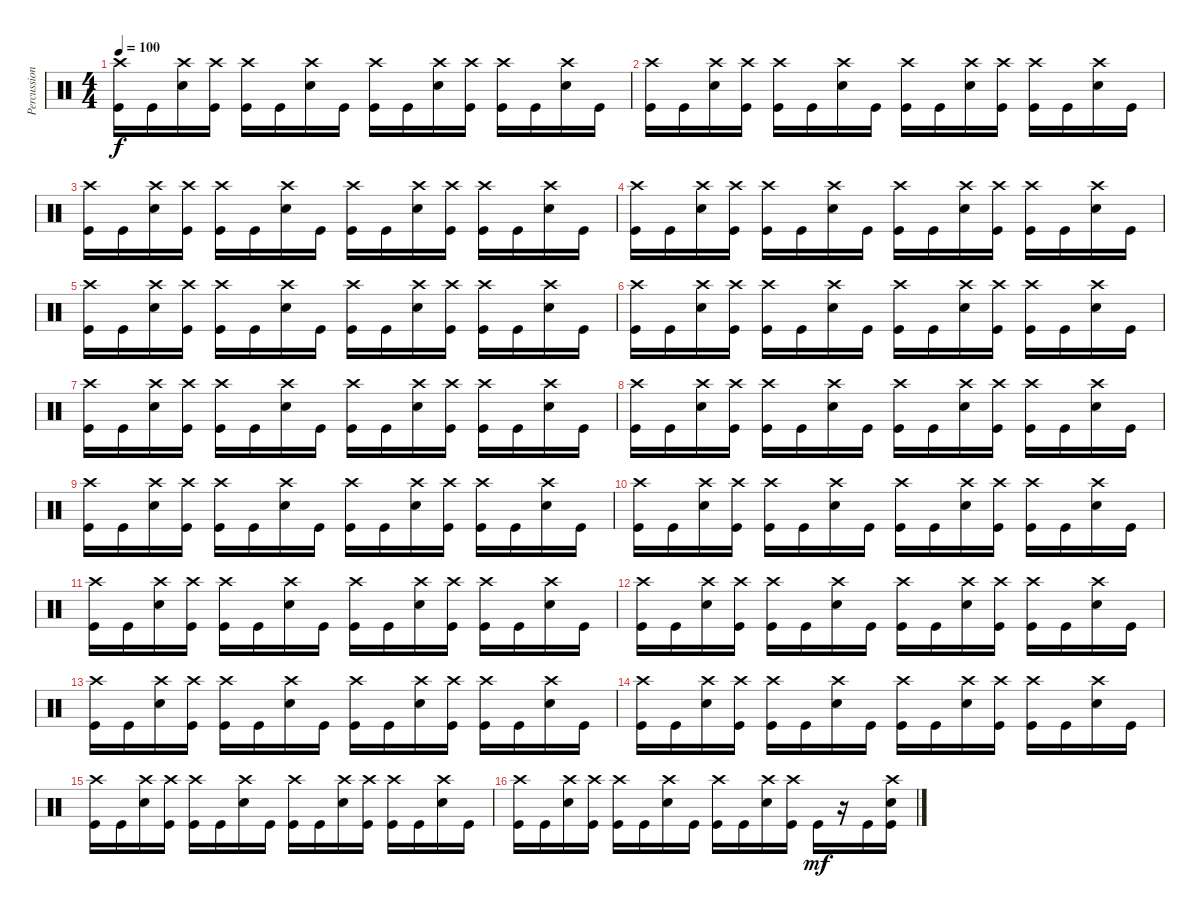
\track ("Percussion" "Percussion") {instrument percussion}
\staff {score}
\articulation defaults
\ts (4 4)
\tempo 100
\clef neutral
\ks c
("Crash high (hit)" "Kick (hit)").16{dy f} "Kick (hit)".16 ("Crash high (hit)" "Snare (hit) 2").16 ("Crash high (hit)" "Kick (hit)").16 ("Crash high (hit)" "Kick (hit)").16 "Kick (hit)".16 ("Crash high (hit)" "Snare (hit) 2").16 "Kick (hit)".16 ("Crash high (hit)" "Kick (hit)").16 "Kick (hit)".16 ("Crash high (hit)" "Snare (hit) 2").16 ("Crash high (hit)" "Kick (hit)").16 ("Crash high (hit)" "Kick (hit)").16 "Kick (hit)".16 ("Crash high (hit)" "Snare (hit) 2").16 "Kick (hit)".16 |
("Crash high (hit)" "Kick (hit)").16 "Kick (hit)".16 ("Crash high (hit)" "Snare (hit) 2").16 ("Crash high (hit)" "Kick (hit)").16 ("Crash high (hit)" "Kick (hit)").16 "Kick (hit)".16 ("Crash high (hit)" "Snare (hit) 2").16 "Kick (hit)".16 ("Crash high (hit)" "Kick (hit)").16 "Kick (hit)".16 ("Crash high (hit)" "Snare (hit) 2").16 ("Crash high (hit)" "Kick (hit)").16 ("Crash high (hit)" "Kick (hit)").16 "Kick (hit)".16 ("Crash high (hit)" "Snare (hit) 2").16 "Kick (hit)".16 |
("Crash high (hit)" "Kick (hit)").16 "Kick (hit)".16 ("Crash high (hit)" "Snare (hit) 2").16 ("Crash high (hit)" "Kick (hit)").16 ("Crash high (hit)" "Kick (hit)").16 "Kick (hit)".16 ("Crash high (hit)" "Snare (hit) 2").16 "Kick (hit)".16 ("Crash high (hit)" "Kick (hit)").16 "Kick (hit)".16 ("Crash high (hit)" "Snare (hit) 2").16 ("Crash high (hit)" "Kick (hit)").16 ("Crash high (hit)" "Kick (hit)").16 "Kick (hit)".16 ("Crash high (hit)" "Snare (hit) 2").16 "Kick (hit)".16 |
("Crash high (hit)" "Kick (hit)").16 "Kick (hit)".16 ("Crash high (hit)" "Snare (hit) 2").16 ("Crash high (hit)" "Kick (hit)").16 ("Crash high (hit)" "Kick (hit)").16 "Kick (hit)".16 ("Crash high (hit)" "Snare (hit) 2").16 "Kick (hit)".16 ("Crash high (hit)" "Kick (hit)").16 "Kick (hit)".16 ("Crash high (hit)" "Snare (hit) 2").16 ("Crash high (hit)" "Kick (hit)").16 ("Crash high (hit)" "Kick (hit)").16 "Kick (hit)".16 ("Crash high (hit)" "Snare (hit) 2").16 "Kick (hit)".16 |
("Crash high (hit)" "Kick (hit)").16 "Kick (hit)".16 ("Crash high (hit)" "Snare (hit) 2").16 ("Crash high (hit)" "Kick (hit)").16 ("Crash high (hit)" "Kick (hit)").16 "Kick (hit)".16 ("Crash high (hit)" "Snare (hit) 2").16 "Kick (hit)".16 ("Crash high (hit)" "Kick (hit)").16 "Kick (hit)".16 ("Crash high (hit)" "Snare (hit) 2").16 ("Crash high (hit)" "Kick (hit)").16 ("Crash high (hit)" "Kick (hit)").16 "Kick (hit)".16 ("Crash high (hit)" "Snare (hit) 2").16 "Kick (hit)".16 |
("Crash high (hit)" "Kick (hit)").16 "Kick (hit)".16 ("Crash high (hit)" "Snare (hit) 2").16 ("Crash high (hit)" "Kick (hit)").16 ("Crash high (hit)" "Kick (hit)").16 "Kick (hit)".16 ("Crash high (hit)" "Snare (hit) 2").16 "Kick (hit)".16 ("Crash high (hit)" "Kick (hit)").16 "Kick (hit)".16 ("Crash high (hit)" "Snare (hit) 2").16 ("Crash high (hit)" "Kick (hit)").16 ("Crash high (hit)" "Kick (hit)").16 "Kick (hit)".16 ("Crash high (hit)" "Snare (hit) 2").16 "Kick (hit)".16 |
("Crash high (hit)" "Kick (hit)").16 "Kick (hit)".16 ("Crash high (hit)" "Snare (hit) 2").16 ("Crash high (hit)" "Kick (hit)").16 ("Crash high (hit)" "Kick (hit)").16 "Kick (hit)".16 ("Crash high (hit)" "Snare (hit) 2").16 "Kick (hit)".16 ("Crash high (hit)" "Kick (hit)").16 "Kick (hit)".16 ("Crash high (hit)" "Snare (hit) 2").16 ("Crash high (hit)" "Kick (hit)").16 ("Crash high (hit)" "Kick (hit)").16 "Kick (hit)".16 ("Crash high (hit)" "Snare (hit) 2").16 "Kick (hit)".16 |
("Crash high (hit)" "Kick (hit)").16 "Kick (hit)".16 ("Crash high (hit)" "Snare (hit) 2").16 ("Crash high (hit)" "Kick (hit)").16 ("Crash high (hit)" "Kick (hit)").16 "Kick (hit)".16 ("Crash high (hit)" "Snare (hit) 2").16 "Kick (hit)".16 ("Crash high (hit)" "Kick (hit)").16 "Kick (hit)".16 ("Crash high (hit)" "Snare (hit) 2").16 ("Crash high (hit)" "Kick (hit)").16 ("Crash high (hit)" "Kick (hit)").16 "Kick (hit)".16 ("Crash high (hit)" "Snare (hit) 2").16 "Kick (hit)".16 |
("Crash high (hit)" "Kick (hit)").16 "Kick (hit)".16 ("Crash high (hit)" "Snare (hit) 2").16 ("Crash high (hit)" "Kick (hit)").16 ("Crash high (hit)" "Kick (hit)").16 "Kick (hit)".16 ("Crash high (hit)" "Snare (hit) 2").16 "Kick (hit)".16 ("Crash high (hit)" "Kick (hit)").16 "Kick (hit)".16 ("Crash high (hit)" "Snare (hit) 2").16 ("Crash high (hit)" "Kick (hit)").16 ("Crash high (hit)" "Kick (hit)").16 "Kick (hit)".16 ("Crash high (hit)" "Snare (hit) 2").16 "Kick (hit)".16 |
("Crash high (hit)" "Kick (hit)").16 "Kick (hit)".16 ("Crash high (hit)" "Snare (hit) 2").16 ("Crash high (hit)" "Kick (hit)").16 ("Crash high (hit)" "Kick (hit)").16 "Kick (hit)".16 ("Crash high (hit)" "Snare (hit) 2").16 "Kick (hit)".16 ("Crash high (hit)" "Kick (hit)").16 "Kick (hit)".16 ("Crash high (hit)" "Snare (hit) 2").16 ("Crash high (hit)" "Kick (hit)").16 ("Crash high (hit)" "Kick (hit)").16 "Kick (hit)".16 ("Crash high (hit)" "Snare (hit) 2").16 "Kick (hit)".16 |
("Crash high (hit)" "Kick (hit)").16 "Kick (hit)".16 ("Crash high (hit)" "Snare (hit) 2").16 ("Crash high (hit)" "Kick (hit)").16 ("Crash high (hit)" "Kick (hit)").16 "Kick (hit)".16 ("Crash high (hit)" "Snare (hit) 2").16 "Kick (hit)".16 ("Crash high (hit)" "Kick (hit)").16 "Kick (hit)".16 ("Crash high (hit)" "Snare (hit) 2").16 ("Crash high (hit)" "Kick (hit)").16 ("Crash high (hit)" "Kick (hit)").16 "Kick (hit)".16 ("Crash high (hit)" "Snare (hit) 2").16 "Kick (hit)".16 |
("Crash high (hit)" "Kick (hit)").16 "Kick (hit)".16 ("Crash high (hit)" "Snare (hit) 2").16 ("Crash high (hit)" "Kick (hit)").16 ("Crash high (hit)" "Kick (hit)").16 "Kick (hit)".16 ("Crash high (hit)" "Snare (hit) 2").16 "Kick (hit)".16 ("Crash high (hit)" "Kick (hit)").16 "Kick (hit)".16 ("Crash high (hit)" "Snare (hit) 2").16 ("Crash high (hit)" "Kick (hit)").16 ("Crash high (hit)" "Kick (hit)").16 "Kick (hit)".16 ("Crash high (hit)" "Snare (hit) 2").16 "Kick (hit)".16 |
("Crash high (hit)" "Kick (hit)").16 "Kick (hit)".16 ("Crash high (hit)" "Snare (hit) 2").16 ("Crash high (hit)" "Kick (hit)").16 ("Crash high (hit)" "Kick (hit)").16 "Kick (hit)".16 ("Crash high (hit)" "Snare (hit) 2").16 "Kick (hit)".16 ("Crash high (hit)" "Kick (hit)").16 "Kick (hit)".16 ("Crash high (hit)" "Snare (hit) 2").16 ("Crash high (hit)" "Kick (hit)").16 ("Crash high (hit)" "Kick (hit)").16 "Kick (hit)".16 ("Crash high (hit)" "Snare (hit) 2").16 "Kick (hit)".16 |
("Crash high (hit)" "Kick (hit)").16 "Kick (hit)".16 ("Crash high (hit)" "Snare (hit) 2").16 ("Crash high (hit)" "Kick (hit)").16 ("Crash high (hit)" "Kick (hit)").16 "Kick (hit)".16 ("Crash high (hit)" "Snare (hit) 2").16 "Kick (hit)".16 ("Crash high (hit)" "Kick (hit)").16 "Kick (hit)".16 ("Crash high (hit)" "Snare (hit) 2").16 ("Crash high (hit)" "Kick (hit)").16 ("Crash high (hit)" "Kick (hit)").16 "Kick (hit)".16 ("Crash high (hit)" "Snare (hit) 2").16 "Kick (hit)".16 |
("Crash high (hit)" "Kick (hit)").16 "Kick (hit)".16 ("Crash high (hit)" "Snare (hit) 2").16 ("Crash high (hit)" "Kick (hit)").16 ("Crash high (hit)" "Kick (hit)").16 "Kick (hit)".16 ("Crash high (hit)" "Snare (hit) 2").16 "Kick (hit)".16 ("Crash high (hit)" "Kick (hit)").16 "Kick (hit)".16 ("Crash high (hit)" "Snare (hit) 2").16 ("Crash high (hit)" "Kick (hit)").16 ("Crash high (hit)" "Kick (hit)").16 "Kick (hit)".16 ("Crash high (hit)" "Snare (hit) 2").16 "Kick (hit)".16 |
("Crash high (hit)" "Kick (hit)").16 "Kick (hit)".16 ("Crash high (hit)" "Snare (hit) 2").16 ("Crash high (hit)" "Kick (hit)").16 ("Crash high (hit)" "Kick (hit)").16 "Kick (hit)".16 ("Crash high (hit)" "Snare (hit) 2").16 "Kick (hit)".16 ("Crash high (hit)" "Kick (hit)").16 "Kick (hit)".16 ("Crash high (hit)" "Snare (hit) 2").16 ("Crash high (hit)" "Kick (hit)").16 "Kick (hit)".16{dy mf} r.16 "Kick (hit)".16 ("Crash high (hit)" "Snare (hit) 2" "Kick (hit)").16
